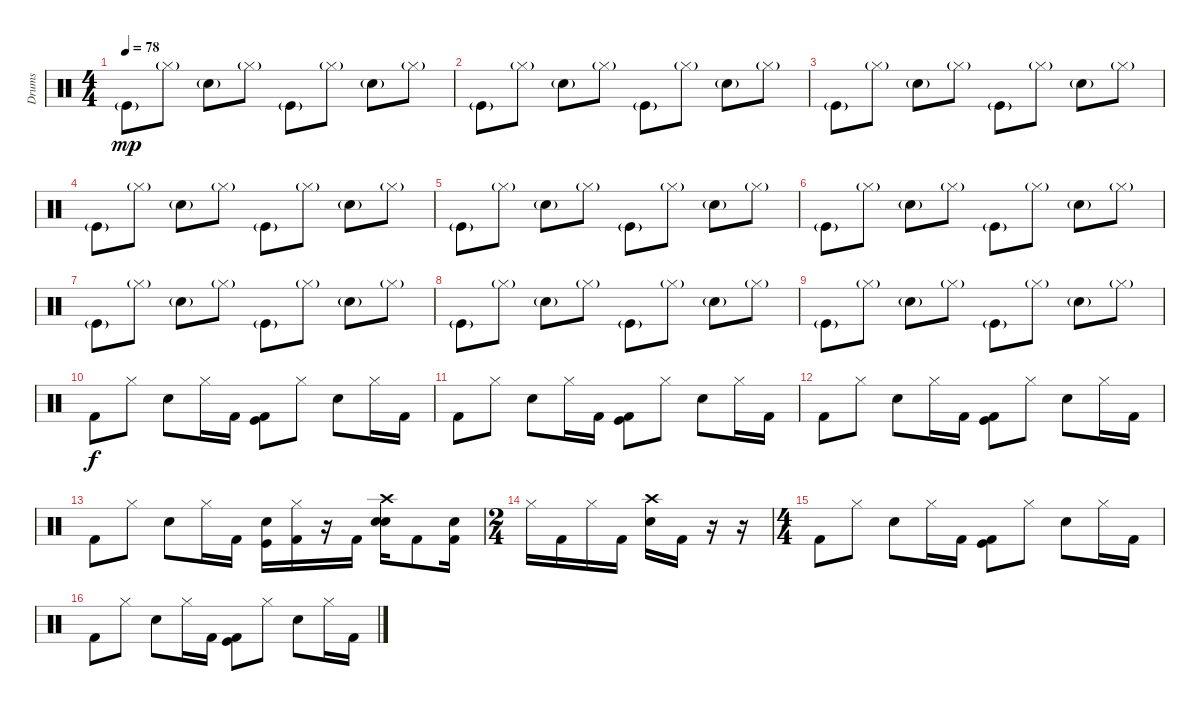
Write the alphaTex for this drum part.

\track ("Drums" "Drums") {instrument percussion}
\staff {score}
\articulation defaults
\ts (4 4)
\tempo 78
\clef neutral
\ks c "Kick (hit)"{g}.8{dy mp} "Hi-Hat (closed)"{g}.8 "Electric Snare (hit)"{g}.8 "Hi-Hat (closed)"{g}.8 "Kick (hit)"{g}.8 "Hi-Hat (closed)"{g}.8 "Electric Snare (hit)"{g}.8 "Hi-Hat (closed)"{g}.8
|
"Kick (hit)"{g}.8 "Hi-Hat (closed)"{g}.8 "Electric Snare (hit)"{g}.8 "Hi-Hat (closed)"{g}.8 "Kick (hit)"{g}.8 "Hi-Hat (closed)"{g}.8 "Electric Snare (hit)"{g}.8 "Hi-Hat (closed)"{g}.8 |
"Kick (hit)"{g}.8 "Hi-Hat (closed)"{g}.8 "Electric Snare (hit)"{g}.8 "Hi-Hat (closed)"{g}.8 "Kick (hit)"{g}.8 "Hi-Hat (closed)"{g}.8 "Electric Snare (hit)"{g}.8 "Hi-Hat (closed)"{g}.8 |
"Kick (hit)"{g}.8 "Hi-Hat (closed)"{g}.8 "Electric Snare (hit)"{g}.8 "Hi-Hat (closed)"{g}.8 "Kick (hit)"{g}.8 "Hi-Hat (closed)"{g}.8 "Electric Snare (hit)"{g}.8 "Hi-Hat (closed)"{g}.8 |
"Kick (hit)"{g}.8 "Hi-Hat (closed)"{g}.8 "Electric Snare (hit)"{g}.8 "Hi-Hat (closed)"{g}.8 "Kick (hit)"{g}.8 "Hi-Hat (closed)"{g}.8 "Electric Snare (hit)"{g}.8 "Hi-Hat (closed)"{g}.8 |
"Kick (hit)"{g}.8 "Hi-Hat (closed)"{g}.8 "Electric Snare (hit)"{g}.8 "Hi-Hat (closed)"{g}.8 "Kick (hit)"{g}.8 "Hi-Hat (closed)"{g}.8 "Electric Snare (hit)"{g}.8 "Hi-Hat (closed)"{g}.8 |
"Kick (hit)"{g}.8 "Hi-Hat (closed)"{g}.8 "Electric Snare (hit)"{g}.8 "Hi-Hat (closed)"{g}.8 "Kick (hit)"{g}.8 "Hi-Hat (closed)"{g}.8 "Electric Snare (hit)"{g}.8 "Hi-Hat (closed)"{g}.8 |
"Kick (hit)"{g}.8 "Hi-Hat (closed)"{g}.8 "Electric Snare (hit)"{g}.8 "Hi-Hat (closed)"{g}.8 "Kick (hit)"{g}.8 "Hi-Hat (closed)"{g}.8 "Electric Snare (hit)"{g}.8 "Hi-Hat (closed)"{g}.8 |
"Kick (hit)"{g}.8 "Hi-Hat (closed)"{g}.8 "Electric Snare (hit)"{g}.8 "Hi-Hat (closed)"{g}.8 "Kick (hit)"{g}.8 "Hi-Hat (closed)"{g}.8 "Electric Snare (hit)"{g}.8 "Hi-Hat (closed)"{g}.8 |
"Kick (hit) 2".8{dy f} "Hi-Hat (closed)".8 "Snare (hit) 2".8 "Hi-Hat (closed)".16 "Kick (hit) 2".16 ("Kick (hit) 2" "Kick (hit)").8 "Hi-Hat (closed)".8 "Snare (hit) 2".8 "Hi-Hat (closed)".16 "Kick (hit) 2".16 |
"Kick (hit) 2".8 "Hi-Hat (closed)".8 "Snare (hit) 2".8 "Hi-Hat (closed)".16 "Kick (hit) 2".16 ("Kick (hit) 2" "Kick (hit)").8 "Hi-Hat (closed)".8 "Snare (hit) 2".8 "Hi-Hat (closed)".16 "Kick (hit) 2".16 |
"Kick (hit) 2".8 "Hi-Hat (closed)".8 "Snare (hit) 2".8 "Hi-Hat (closed)".16 "Kick (hit) 2".16 ("Kick (hit) 2" "Kick (hit)").8 "Hi-Hat (closed)".8 "Snare (hit) 2".8 "Hi-Hat (closed)".16 "Kick (hit) 2".16 |
"Kick (hit) 2".8 "Hi-Hat (closed)".8 "Snare (hit) 2".8 "Hi-Hat (closed)".16 "Kick (hit) 2".16 ("Electric Snare (hit)" "Kick (hit)").16 ("Hi-Hat (closed)" "Kick (hit) 2").16 r.16 "Kick (hit) 2".16 ("Snare (hit) 2" "Crash high (hit)" "Snare (hit) 2").16 "Kick (hit) 2".8 ("Kick (hit) 2" "Snare (hit) 2").16 |
\ts (2 4)
"Hi-Hat (closed)".16 "Kick (hit) 2".16 "Hi-Hat (closed)".16 "Kick (hit) 2".16 ("Crash high (hit)" "Snare (hit) 2").16 "Kick (hit) 2".16 r.16 r.16 |
\ts (4 4)
"Kick (hit) 2".8 "Hi-Hat (closed)".8 "Snare (hit) 2".8 "Hi-Hat (closed)".16 "Kick (hit) 2".16 ("Kick (hit) 2" "Kick (hit)").8 "Hi-Hat (closed)".8 "Snare (hit) 2".8 "Hi-Hat (closed)".16 "Kick (hit) 2".16 |
"Kick (hit) 2".8 "Hi-Hat (closed)".8 "Snare (hit) 2".8 "Hi-Hat (closed)".16 "Kick (hit) 2".16 ("Kick (hit) 2" "Kick (hit)").8 "Hi-Hat (closed)".8 "Snare (hit) 2".8 "Hi-Hat (closed)".16 "Kick (hit) 2".16
